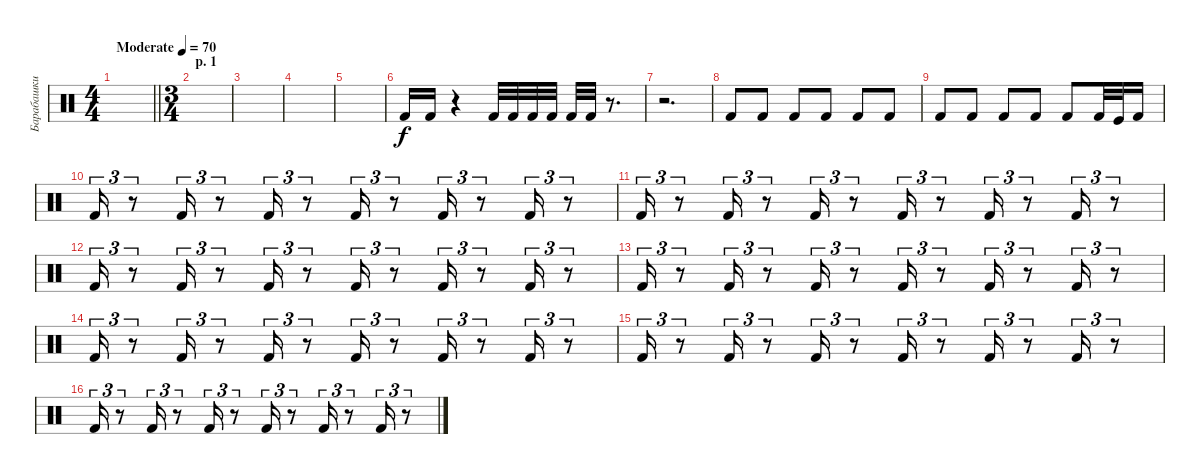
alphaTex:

\track ("Барабашки low" "Барабашки ") {instrument percussion}
\staff {score}
\articulation defaults
\ts (4 4)
\tempo (70 "Moderate")
\clef neutral
\barLineRight lightlight
\ks c
|
\ts (3 4)
\section ("" "p. 1")
|
|
|
|
"Kick (hit) 2".16 "Kick (hit) 2".16 r.4 "Kick (hit) 2".32 "Kick (hit) 2".32 "Kick (hit) 2".32 "Kick (hit) 2".32 "Kick (hit) 2".32 "Kick (hit) 2".32 r.8{d} |
r.2{d} |
"Kick (hit) 2".8 "Kick (hit) 2".8 "Kick (hit) 2".8 "Kick (hit) 2".8 "Kick (hit) 2".8 "Kick (hit) 2".8 |
"Kick (hit) 2".8 "Kick (hit) 2".8 "Kick (hit) 2".8 "Kick (hit) 2".8 "Kick (hit) 2".8 "Kick (hit) 2".32 "Kick (hit)".32 "Kick (hit) 2".16 |
"Kick (hit) 2".16{tu (3 2)} r.8{tu (3 2)} "Kick (hit) 2".16{tu (3 2)} r.8{tu (3 2)} "Kick (hit) 2".16{tu (3 2)} r.8{tu (3 2)} "Kick (hit) 2".16{tu (3 2)} r.8{tu (3 2)} "Kick (hit) 2".16{tu (3 2)} r.8{tu (3 2)} "Kick (hit) 2".16{tu (3 2)} r.8{tu (3 2)} |
"Kick (hit) 2".16{tu (3 2)} r.8{tu (3 2)} "Kick (hit) 2".16{tu (3 2)} r.8{tu (3 2)} "Kick (hit) 2".16{tu (3 2)} r.8{tu (3 2)} "Kick (hit) 2".16{tu (3 2)} r.8{tu (3 2)} "Kick (hit) 2".16{tu (3 2)} r.8{tu (3 2)} "Kick (hit) 2".16{tu (3 2)} r.8{tu (3 2)} |
"Kick (hit) 2".16{tu (3 2)} r.8{tu (3 2)} "Kick (hit) 2".16{tu (3 2)} r.8{tu (3 2)} "Kick (hit) 2".16{tu (3 2)} r.8{tu (3 2)} "Kick (hit) 2".16{tu (3 2)} r.8{tu (3 2)} "Kick (hit) 2".16{tu (3 2)} r.8{tu (3 2)} "Kick (hit) 2".16{tu (3 2)} r.8{tu (3 2)} |
"Kick (hit) 2".16{tu (3 2)} r.8{tu (3 2)} "Kick (hit) 2".16{tu (3 2)} r.8{tu (3 2)} "Kick (hit) 2".16{tu (3 2)} r.8{tu (3 2)} "Kick (hit) 2".16{tu (3 2)} r.8{tu (3 2)} "Kick (hit) 2".16{tu (3 2)} r.8{tu (3 2)} "Kick (hit) 2".16{tu (3 2)} r.8{tu (3 2)} |
"Kick (hit) 2".16{tu (3 2)} r.8{tu (3 2)} "Kick (hit) 2".16{tu (3 2)} r.8{tu (3 2)} "Kick (hit) 2".16{tu (3 2)} r.8{tu (3 2)} "Kick (hit) 2".16{tu (3 2)} r.8{tu (3 2)} "Kick (hit) 2".16{tu (3 2)} r.8{tu (3 2)} "Kick (hit) 2".16{tu (3 2)} r.8{tu (3 2)} |
"Kick (hit) 2".16{tu (3 2)} r.8{tu (3 2)} "Kick (hit) 2".16{tu (3 2)} r.8{tu (3 2)} "Kick (hit) 2".16{tu (3 2)} r.8{tu (3 2)} "Kick (hit) 2".16{tu (3 2)} r.8{tu (3 2)} "Kick (hit) 2".16{tu (3 2)} r.8{tu (3 2)} "Kick (hit) 2".16{tu (3 2)} r.8{tu (3 2)} |
"Kick (hit) 2".16{tu (3 2)} r.8{tu (3 2)} "Kick (hit) 2".16{tu (3 2)} r.8{tu (3 2)} "Kick (hit) 2".16{tu (3 2)} r.8{tu (3 2)} "Kick (hit) 2".16{tu (3 2)} r.8{tu (3 2)} "Kick (hit) 2".16{tu (3 2)} r.8{tu (3 2)} "Kick (hit) 2".16{tu (3 2)} r.8{tu (3 2)}
